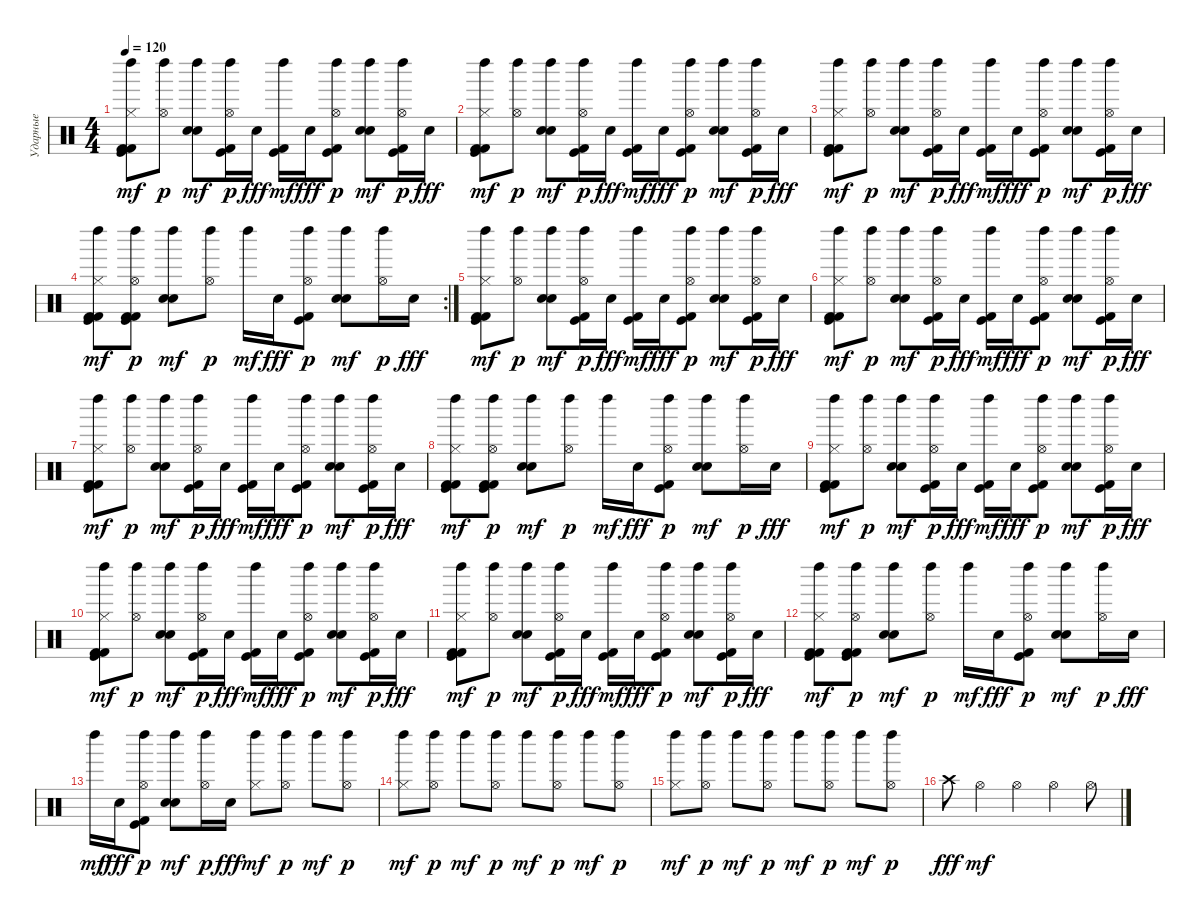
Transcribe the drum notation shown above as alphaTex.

\track ("Ударные" "Ударные") {instrument percussion}
\staff {score}
\articulation defaults
\ts (4 4)
\tempo 120
\clef neutral
\ks c
("Hi-Hat (closed)" "Kick (hit)" "Kick (hit) 2" "Kick (hit) 2" "Left Maraca (hit)").8{dy mf} ("Hi-Hat (open)" "Left Maraca (hit)").8{dy p} ("Snare (hit) 2" "Electric Snare (hit)" "Left Maraca (hit)").8{dy mf} ("Hi-Hat (open)" "Kick (hit)" "Kick (hit) 2" "Left Maraca (hit)").16{dy p} "Snare (hit) 2".16{dy fff} ("Kick (hit)" "Kick (hit) 2" "Left Maraca (hit)").16{dy mf} "Snare (hit) 2".16{dy fff} ("Hi-Hat (open)" "Kick (hit)" "Kick (hit) 2" "Left Maraca (hit)").8{dy p} ("Snare (hit) 2" "Electric Snare (hit)" "Left Maraca (hit)").8{dy mf} ("Hi-Hat (open)" "Kick (hit)" "Kick (hit) 2" "Left Maraca (hit)").16{dy p} "Snare (hit) 2".16{dy fff} |
("Hi-Hat (closed)" "Kick (hit)" "Kick (hit) 2" "Kick (hit) 2" "Left Maraca (hit)").8{dy mf} ("Hi-Hat (open)" "Left Maraca (hit)").8{dy p} ("Snare (hit) 2" "Electric Snare (hit)" "Left Maraca (hit)").8{dy mf} ("Hi-Hat (open)" "Kick (hit)" "Kick (hit) 2" "Left Maraca (hit)").16{dy p} "Snare (hit) 2".16{dy fff} ("Kick (hit)" "Kick (hit) 2" "Left Maraca (hit)").16{dy mf} "Snare (hit) 2".16{dy fff} ("Hi-Hat (open)" "Kick (hit)" "Kick (hit) 2" "Left Maraca (hit)").8{dy p} ("Snare (hit) 2" "Electric Snare (hit)" "Left Maraca (hit)").8{dy mf} ("Hi-Hat (open)" "Kick (hit)" "Kick (hit) 2" "Left Maraca (hit)").16{dy p} "Snare (hit) 2".16{dy fff} |
("Hi-Hat (closed)" "Kick (hit)" "Kick (hit) 2" "Kick (hit) 2" "Left Maraca (hit)").8{dy mf} ("Hi-Hat (open)" "Left Maraca (hit)").8{dy p} ("Snare (hit) 2" "Electric Snare (hit)" "Left Maraca (hit)").8{dy mf} ("Hi-Hat (open)" "Kick (hit)" "Kick (hit) 2" "Left Maraca (hit)").16{dy p} "Snare (hit) 2".16{dy fff} ("Kick (hit)" "Kick (hit) 2" "Left Maraca (hit)").16{dy mf} "Snare (hit) 2".16{dy fff} ("Hi-Hat (open)" "Kick (hit)" "Kick (hit) 2" "Left Maraca (hit)").8{dy p} ("Snare (hit) 2" "Electric Snare (hit)" "Left Maraca (hit)").8{dy mf} ("Hi-Hat (open)" "Kick (hit)" "Kick (hit) 2" "Left Maraca (hit)").16{dy p} "Snare (hit) 2".16{dy fff} |
\rc 2
("Hi-Hat (closed)" "Kick (hit)" "Kick (hit) 2" "Kick (hit) 2" "Left Maraca (hit)").8{dy mf} ("Hi-Hat (open)" "Kick (hit)" "Kick (hit) 2" "Kick (hit) 2" "Left Maraca (hit)").8{dy p} ("Snare (hit) 2" "Electric Snare (hit)" "Left Maraca (hit)").8{dy mf} ("Hi-Hat (open)" "Left Maraca (hit)").8{dy p} "Left Maraca (hit)".16{dy mf} "Snare (hit) 2".16{dy fff} ("Hi-Hat (open)" "Kick (hit)" "Kick (hit) 2" "Left Maraca (hit)").8{dy p} ("Snare (hit) 2" "Electric Snare (hit)" "Left Maraca (hit)").8{dy mf} ("Hi-Hat (open)" "Left Maraca (hit)").16{dy p} "Snare (hit) 2".16{dy fff} |
("Hi-Hat (closed)" "Kick (hit)" "Kick (hit) 2" "Kick (hit) 2" "Left Maraca (hit)").8{dy mf} ("Hi-Hat (open)" "Left Maraca (hit)").8{dy p} ("Snare (hit) 2" "Electric Snare (hit)" "Left Maraca (hit)").8{dy mf} ("Hi-Hat (open)" "Kick (hit)" "Kick (hit) 2" "Left Maraca (hit)").16{dy p} "Snare (hit) 2".16{dy fff} ("Kick (hit)" "Kick (hit) 2" "Left Maraca (hit)").16{dy mf} "Snare (hit) 2".16{dy fff} ("Hi-Hat (open)" "Kick (hit)" "Kick (hit) 2" "Left Maraca (hit)").8{dy p} ("Snare (hit) 2" "Electric Snare (hit)" "Left Maraca (hit)").8{dy mf} ("Hi-Hat (open)" "Kick (hit)" "Kick (hit) 2" "Left Maraca (hit)").16{dy p} "Snare (hit) 2".16{dy fff} |
("Hi-Hat (closed)" "Kick (hit)" "Kick (hit) 2" "Kick (hit) 2" "Left Maraca (hit)").8{dy mf} ("Hi-Hat (open)" "Left Maraca (hit)").8{dy p} ("Snare (hit) 2" "Electric Snare (hit)" "Left Maraca (hit)").8{dy mf} ("Hi-Hat (open)" "Kick (hit)" "Kick (hit) 2" "Left Maraca (hit)").16{dy p} "Snare (hit) 2".16{dy fff} ("Kick (hit)" "Kick (hit) 2" "Left Maraca (hit)").16{dy mf} "Snare (hit) 2".16{dy fff} ("Hi-Hat (open)" "Kick (hit)" "Kick (hit) 2" "Left Maraca (hit)").8{dy p} ("Snare (hit) 2" "Electric Snare (hit)" "Left Maraca (hit)").8{dy mf} ("Hi-Hat (open)" "Kick (hit)" "Kick (hit) 2" "Left Maraca (hit)").16{dy p} "Snare (hit) 2".16{dy fff} |
("Hi-Hat (closed)" "Kick (hit)" "Kick (hit) 2" "Kick (hit) 2" "Left Maraca (hit)").8{dy mf} ("Hi-Hat (open)" "Left Maraca (hit)").8{dy p} ("Snare (hit) 2" "Electric Snare (hit)" "Left Maraca (hit)").8{dy mf} ("Hi-Hat (open)" "Kick (hit)" "Kick (hit) 2" "Left Maraca (hit)").16{dy p} "Snare (hit) 2".16{dy fff} ("Kick (hit)" "Kick (hit) 2" "Left Maraca (hit)").16{dy mf} "Snare (hit) 2".16{dy fff} ("Hi-Hat (open)" "Kick (hit)" "Kick (hit) 2" "Left Maraca (hit)").8{dy p} ("Snare (hit) 2" "Electric Snare (hit)" "Left Maraca (hit)").8{dy mf} ("Hi-Hat (open)" "Kick (hit)" "Kick (hit) 2" "Left Maraca (hit)").16{dy p} "Snare (hit) 2".16{dy fff} |
("Hi-Hat (closed)" "Kick (hit)" "Kick (hit) 2" "Kick (hit) 2" "Left Maraca (hit)").8{dy mf} ("Hi-Hat (open)" "Kick (hit)" "Kick (hit) 2" "Kick (hit) 2" "Left Maraca (hit)").8{dy p} ("Snare (hit) 2" "Electric Snare (hit)" "Left Maraca (hit)").8{dy mf} ("Hi-Hat (open)" "Left Maraca (hit)").8{dy p} "Left Maraca (hit)".16{dy mf} "Snare (hit) 2".16{dy fff} ("Hi-Hat (open)" "Kick (hit)" "Kick (hit) 2" "Left Maraca (hit)").8{dy p} ("Snare (hit) 2" "Electric Snare (hit)" "Left Maraca (hit)").8{dy mf} ("Hi-Hat (open)" "Left Maraca (hit)").16{dy p} "Snare (hit) 2".16{dy fff} |
("Hi-Hat (closed)" "Kick (hit)" "Kick (hit) 2" "Kick (hit) 2" "Left Maraca (hit)").8{dy mf} ("Hi-Hat (open)" "Left Maraca (hit)").8{dy p} ("Snare (hit) 2" "Electric Snare (hit)" "Left Maraca (hit)").8{dy mf} ("Hi-Hat (open)" "Kick (hit)" "Kick (hit) 2" "Left Maraca (hit)").16{dy p} "Snare (hit) 2".16{dy fff} ("Kick (hit)" "Kick (hit) 2" "Left Maraca (hit)").16{dy mf} "Snare (hit) 2".16{dy fff} ("Hi-Hat (open)" "Kick (hit)" "Kick (hit) 2" "Left Maraca (hit)").8{dy p} ("Snare (hit) 2" "Electric Snare (hit)" "Left Maraca (hit)").8{dy mf} ("Hi-Hat (open)" "Kick (hit)" "Kick (hit) 2" "Left Maraca (hit)").16{dy p} "Snare (hit) 2".16{dy fff} |
("Hi-Hat (closed)" "Kick (hit)" "Kick (hit) 2" "Kick (hit) 2" "Left Maraca (hit)").8{dy mf} ("Hi-Hat (open)" "Left Maraca (hit)").8{dy p} ("Snare (hit) 2" "Electric Snare (hit)" "Left Maraca (hit)").8{dy mf} ("Hi-Hat (open)" "Kick (hit)" "Kick (hit) 2" "Left Maraca (hit)").16{dy p} "Snare (hit) 2".16{dy fff} ("Kick (hit)" "Kick (hit) 2" "Left Maraca (hit)").16{dy mf} "Snare (hit) 2".16{dy fff} ("Hi-Hat (open)" "Kick (hit)" "Kick (hit) 2" "Left Maraca (hit)").8{dy p} ("Snare (hit) 2" "Electric Snare (hit)" "Left Maraca (hit)").8{dy mf} ("Hi-Hat (open)" "Kick (hit)" "Kick (hit) 2" "Left Maraca (hit)").16{dy p} "Snare (hit) 2".16{dy fff} |
("Hi-Hat (closed)" "Kick (hit)" "Kick (hit) 2" "Kick (hit) 2" "Left Maraca (hit)").8{dy mf} ("Hi-Hat (open)" "Left Maraca (hit)").8{dy p} ("Snare (hit) 2" "Electric Snare (hit)" "Left Maraca (hit)").8{dy mf} ("Hi-Hat (open)" "Kick (hit)" "Kick (hit) 2" "Left Maraca (hit)").16{dy p} "Snare (hit) 2".16{dy fff} ("Kick (hit)" "Kick (hit) 2" "Left Maraca (hit)").16{dy mf} "Snare (hit) 2".16{dy fff} ("Hi-Hat (open)" "Kick (hit)" "Kick (hit) 2" "Left Maraca (hit)").8{dy p} ("Snare (hit) 2" "Electric Snare (hit)" "Left Maraca (hit)").8{dy mf} ("Hi-Hat (open)" "Kick (hit)" "Kick (hit) 2" "Left Maraca (hit)").16{dy p} "Snare (hit) 2".16{dy fff} |
("Hi-Hat (closed)" "Kick (hit)" "Kick (hit) 2" "Kick (hit) 2" "Left Maraca (hit)").8{dy mf} ("Hi-Hat (open)" "Kick (hit)" "Kick (hit) 2" "Kick (hit) 2" "Left Maraca (hit)").8{dy p} ("Snare (hit) 2" "Electric Snare (hit)" "Left Maraca (hit)").8{dy mf} ("Hi-Hat (open)" "Left Maraca (hit)").8{dy p} "Left Maraca (hit)".16{dy mf} "Snare (hit) 2".16{dy fff} ("Hi-Hat (open)" "Kick (hit)" "Kick (hit) 2" "Left Maraca (hit)").8{dy p} ("Snare (hit) 2" "Electric Snare (hit)" "Left Maraca (hit)").8{dy mf} ("Hi-Hat (open)" "Left Maraca (hit)").16{dy p} "Snare (hit) 2".16{dy fff} |
"Left Maraca (hit)".16{dy mf} "Snare (hit) 2".16{dy fff} ("Hi-Hat (open)" "Kick (hit)" "Kick (hit) 2" "Left Maraca (hit)").8{dy p} ("Snare (hit) 2" "Electric Snare (hit)" "Left Maraca (hit)").8{dy mf} ("Hi-Hat (open)" "Left Maraca (hit)").16{dy p} "Snare (hit) 2".16{dy fff} ("Hi-Hat (closed)" "Left Maraca (hit)").8{dy mf} ("Hi-Hat (open)" "Left Maraca (hit)").8{dy p} "Left Maraca (hit)".8{dy mf} ("Hi-Hat (open)" "Left Maraca (hit)").8{dy p} |
("Hi-Hat (closed)" "Left Maraca (hit)").8{dy mf} ("Hi-Hat (open)" "Left Maraca (hit)").8{dy p} "Left Maraca (hit)".8{dy mf} ("Hi-Hat (open)" "Left Maraca (hit)").8{dy p} "Left Maraca (hit)".8{dy mf} ("Hi-Hat (open)" "Left Maraca (hit)").8{dy p} "Left Maraca (hit)".8{dy mf} ("Hi-Hat (open)" "Left Maraca (hit)").8{dy p} |
("Hi-Hat (closed)" "Left Maraca (hit)").8{dy mf} ("Hi-Hat (open)" "Left Maraca (hit)").8{dy p} "Left Maraca (hit)".8{dy mf} ("Hi-Hat (open)" "Left Maraca (hit)").8{dy p} "Left Maraca (hit)".8{dy mf} ("Hi-Hat (open)" "Left Maraca (hit)").8{dy p} "Left Maraca (hit)".8{dy mf} ("Hi-Hat (open)" "Left Maraca (hit)").8{dy p} |
"Crash high (hit)".8{dy fff} "Hi-Hat (open)".4{dy mf} "Hi-Hat (open)".4 "Hi-Hat (open)".4 "Hi-Hat (open)".8
